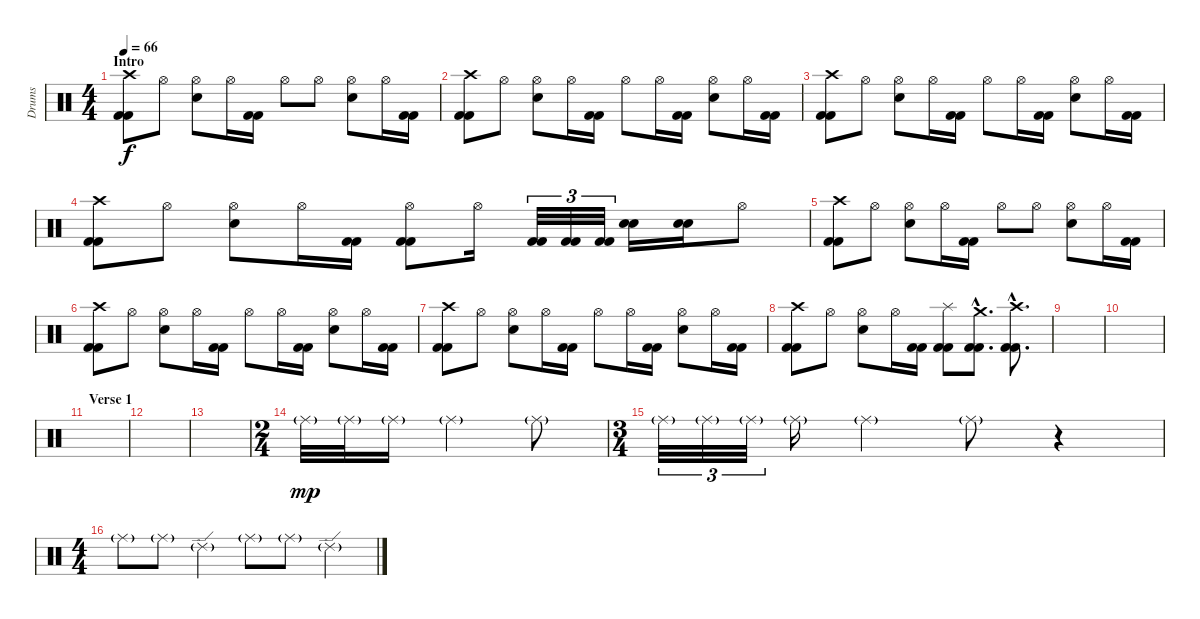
\track ("Drums" "Drums") {instrument percussion}
\staff {score}
\articulation defaults
\ts (4 4)
\section ("" "Intro")
\tempo 66
\clef neutral
\ks c
("Crash high (hit)" "Kick (hit) 2" "Kick (hit) 2").8{dy f} "Hi-Hat (open)".8 ("Hi-Hat (open)" "Snare (hit) 2").8 "Hi-Hat (open)".16 ("Kick (hit) 2" "Kick (hit) 2").16 "Hi-Hat (open)".8 "Hi-Hat (open)".8 ("Hi-Hat (open)" "Snare (hit) 2").8 "Hi-Hat (open)".16 ("Kick (hit) 2" "Kick (hit) 2").16 |
("Crash high (hit)" "Kick (hit) 2" "Kick (hit) 2").8 "Hi-Hat (open)".8 ("Hi-Hat (open)" "Snare (hit) 2").8 "Hi-Hat (open)".16 ("Kick (hit) 2" "Kick (hit) 2").16 "Hi-Hat (open)".8 "Hi-Hat (open)".16 ("Kick (hit) 2" "Kick (hit) 2").16 ("Hi-Hat (open)" "Snare (hit) 2").8 "Hi-Hat (open)".16 ("Kick (hit) 2" "Kick (hit) 2").16 |
("Crash high (hit)" "Kick (hit) 2" "Kick (hit) 2").8 "Hi-Hat (open)".8 ("Hi-Hat (open)" "Snare (hit) 2").8 "Hi-Hat (open)".16 ("Kick (hit) 2" "Kick (hit) 2").16 "Hi-Hat (open)".8 "Hi-Hat (open)".16 ("Kick (hit) 2" "Kick (hit) 2").16 ("Hi-Hat (open)" "Snare (hit) 2").8 "Hi-Hat (open)".16 ("Kick (hit) 2" "Kick (hit) 2").16 |
("Crash high (hit)" "Kick (hit) 2" "Kick (hit) 2").8 "Hi-Hat (open)".8 ("Hi-Hat (open)" "Snare (hit) 2").8 "Hi-Hat (open)".16 ("Kick (hit) 2" "Kick (hit) 2").16 ("Hi-Hat (open)" "Kick (hit) 2" "Kick (hit) 2").8 "Hi-Hat (open)".16 ("Kick (hit) 2" "Kick (hit) 2").32{tu (3 2)} ("Kick (hit) 2" "Kick (hit) 2").32{tu (3 2)} ("Kick (hit) 2" "Kick (hit) 2").32{tu (3 2)} ("Snare (hit) 2" "Snare (hit) 2").16 ("Snare (hit) 2" "Snare (hit) 2").16 "Hi-Hat (open)".8 |
("Crash high (hit)" "Kick (hit) 2" "Kick (hit) 2").8 "Hi-Hat (open)".8 ("Hi-Hat (open)" "Snare (hit) 2").8 "Hi-Hat (open)".16 ("Kick (hit) 2" "Kick (hit) 2").16 "Hi-Hat (open)".8 "Hi-Hat (open)".8 ("Hi-Hat (open)" "Snare (hit) 2").8 "Hi-Hat (open)".16 ("Kick (hit) 2" "Kick (hit) 2").16 |
("Crash high (hit)" "Kick (hit) 2" "Kick (hit) 2").8 "Hi-Hat (open)".8 ("Hi-Hat (open)" "Snare (hit) 2").8 "Hi-Hat (open)".16 ("Kick (hit) 2" "Kick (hit) 2").16 "Hi-Hat (open)".8 "Hi-Hat (open)".16 ("Kick (hit) 2" "Kick (hit) 2").16 ("Hi-Hat (open)" "Snare (hit) 2").8 "Hi-Hat (open)".16 ("Kick (hit) 2" "Kick (hit) 2").16 |
("Crash high (hit)" "Kick (hit) 2" "Kick (hit) 2").8 "Hi-Hat (open)".8 ("Hi-Hat (open)" "Snare (hit) 2").8 "Hi-Hat (open)".16 ("Kick (hit) 2" "Kick (hit) 2").16 "Hi-Hat (open)".8 "Hi-Hat (open)".16 ("Kick (hit) 2" "Kick (hit) 2").16 ("Hi-Hat (open)" "Snare (hit) 2").8 "Hi-Hat (open)".16 ("Kick (hit) 2" "Kick (hit) 2").16 |
("Crash high (hit)" "Kick (hit) 2" "Kick (hit) 2").8 "Hi-Hat (open)".8 ("Hi-Hat (open)" "Snare (hit) 2").8 "Hi-Hat (open)".16 ("Kick (hit) 2" "Kick (hit) 2").16 ("Splash (hit)" "Kick (hit) 2" "Kick (hit) 2").8 ("Crash medium (hit)"{hac} "Kick (hit) 2"{hac} "Kick (hit) 2"{hac}).8{d} ("Crash high (hit)"{hac} "Kick (hit) 2"{hac} "Kick (hit) 2"{hac}).8{d} |
\section ("" "")
|
|
\section ("" "Verse 1")
|
|
|
\ts (2 4)
"Ride (middle)"{g}.32{dy mp} "Ride (middle)"{g}.32 "Ride (middle)"{g}.16 "Ride (middle)"{g}.4 "Ride (middle)"{g}.8 |
\ts (3 4)
"Ride (middle)"{g}.32{tu (3 2)} "Ride (middle)"{g}.32{tu (3 2)} "Ride (middle)"{g}.32{tu (3 2)} "Ride (middle)"{g}.16 "Ride (middle)"{g}.4 "Ride (middle)"{g}.8 r.4 |
\ts (4 4)
"Ride (middle)"{g}.8 "Ride (middle)"{g}.8 "Ride (edge) 2"{g}.4 "Ride (middle)"{g}.8 "Ride (middle)"{g}.8 "Ride (edge) 2"{g}.4
